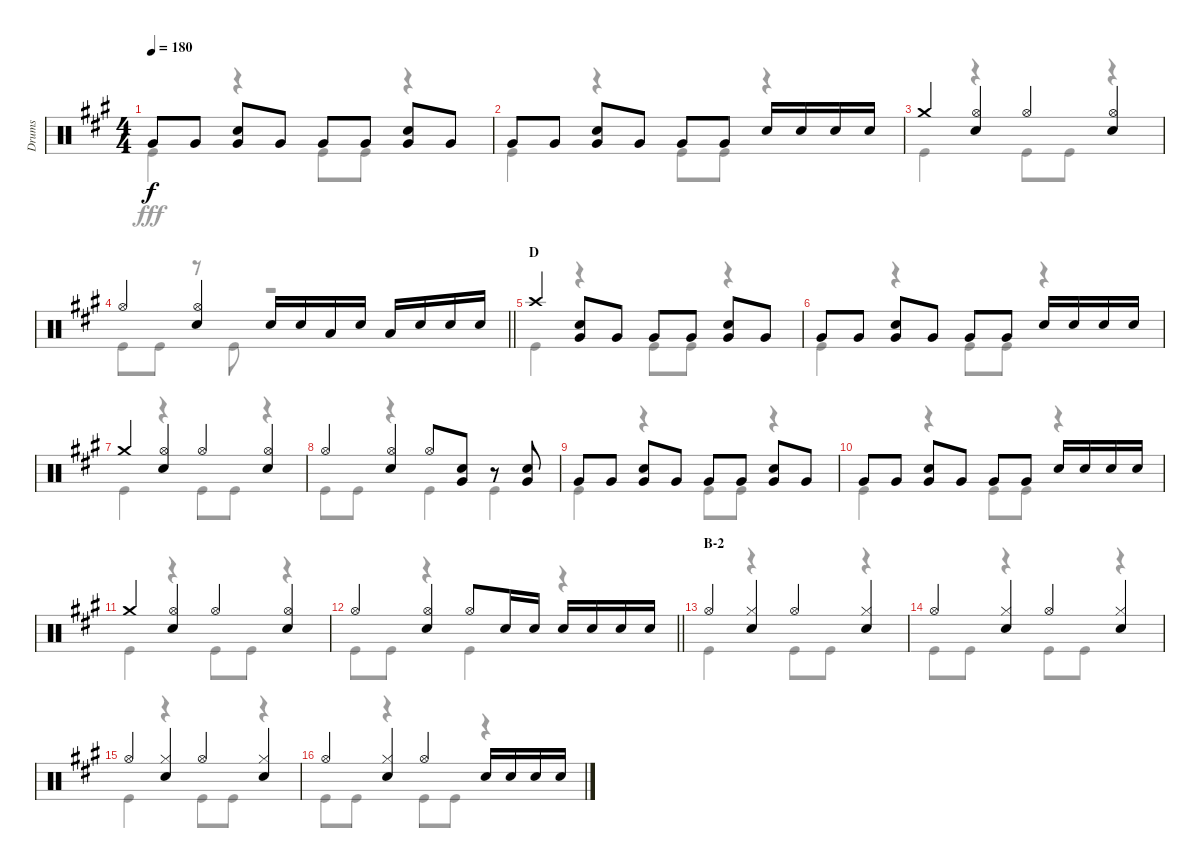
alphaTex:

\track ("Drums" "Drums") {instrument percussion}
\staff {score}
\articulation defaults
\voice
\ts (4 4)
\tempo 180
\clef neutral
\ks a "Very Low Tom (hit)".8{dy f} "Very Low Tom (hit)".8
("Snare (hit) 2" "Very Low Tom (hit)").8 "Very Low Tom (hit)".8 "Very Low Tom (hit)".8 "Very Low Tom (hit)".8 ("Snare (hit) 2" "Very Low Tom (hit)").8 "Very Low Tom (hit)".8 |
"Very Low Tom (hit)".8 "Very Low Tom (hit)".8 ("Snare (hit) 2" "Very Low Tom (hit)").8 "Very Low Tom (hit)".8 "Very Low Tom (hit)".8 "Very Low Tom (hit)".8 "Snare (hit) 2".16 "Snare (hit) 2".16 "Snare (hit) 2".16 "Snare (hit) 2".16 |
"Crash medium (hit)".4 ("Hi-Hat (open)" "Snare (hit) 2").4 "Hi-Hat (open)".4 ("Hi-Hat (open)" "Snare (hit) 2").4 |
\barLineRight lightlight "Hi-Hat (open)".4
("Hi-Hat (open)" "Snare (hit) 2").4 "Snare (hit) 2".16 "Snare (hit) 2".16 "Low Tom (hit)".16 "Snare (hit) 2".16 "Low Tom (hit)".16 "Snare (hit) 2".16 "Snare (hit) 2".16 "Snare (hit) 2".16 |
\section ("" "D")
"Crash high (hit)".4 ("Snare (hit) 2" "Very Low Tom (hit)").8 "Very Low Tom (hit)".8 "Very Low Tom (hit)".8 "Very Low Tom (hit)".8 ("Snare (hit) 2" "Very Low Tom (hit)").8 "Very Low Tom (hit)".8 |
"Very Low Tom (hit)".8 "Very Low Tom (hit)".8 ("Snare (hit) 2" "Very Low Tom (hit)").8 "Very Low Tom (hit)".8 "Very Low Tom (hit)".8 "Very Low Tom (hit)".8 "Snare (hit) 2".16 "Snare (hit) 2".16 "Snare (hit) 2".16 "Snare (hit) 2".16 |
"Crash medium (hit)".4 ("Hi-Hat (open)" "Snare (hit) 2").4 "Hi-Hat (open)".4 ("Hi-Hat (open)" "Snare (hit) 2").4 |
"Hi-Hat (open)".4 ("Hi-Hat (open)" "Snare (hit) 2").4 "Hi-Hat (open)".8 ("Snare (hit) 2" "Very Low Tom (hit)").8 r.8 ("Snare (hit) 2" "Very Low Tom (hit)").8 |
"Very Low Tom (hit)".8 "Very Low Tom (hit)".8 ("Snare (hit) 2" "Very Low Tom (hit)").8 "Very Low Tom (hit)".8 "Very Low Tom (hit)".8 "Very Low Tom (hit)".8 ("Snare (hit) 2" "Very Low Tom (hit)").8 "Very Low Tom (hit)".8 |
"Very Low Tom (hit)".8 "Very Low Tom (hit)".8 ("Snare (hit) 2" "Very Low Tom (hit)").8 "Very Low Tom (hit)".8 "Very Low Tom (hit)".8 "Very Low Tom (hit)".8 "Snare (hit) 2".16 "Snare (hit) 2".16 "Snare (hit) 2".16 "Snare (hit) 2".16 |
"Crash medium (hit)".4 ("Hi-Hat (open)" "Snare (hit) 2").4 "Hi-Hat (open)".4 ("Hi-Hat (open)" "Snare (hit) 2").4 |
\barLineRight lightlight "Hi-Hat (open)".4
("Hi-Hat (open)" "Snare (hit) 2").4 "Hi-Hat (open)".8 "Snare (hit) 2".16 "Snare (hit) 2".16 "Snare (hit) 2".16 "Snare (hit) 2".16 "Snare (hit) 2".16 "Snare (hit) 2".16 |
\section ("" "B-2")
"Hi-Hat (open)".4 ("Hi-Hat (closed)" "Snare (hit) 2").4 "Hi-Hat (open)".4 ("Hi-Hat (closed)" "Snare (hit) 2").4 |
"Hi-Hat (open)".4 ("Hi-Hat (closed)" "Snare (hit) 2").4 "Hi-Hat (open)".4 ("Hi-Hat (closed)" "Snare (hit) 2").4 |
"Hi-Hat (open)".4 ("Hi-Hat (closed)" "Snare (hit) 2").4 "Hi-Hat (open)".4 ("Hi-Hat (closed)" "Snare (hit) 2").4 |
"Hi-Hat (open)".4 ("Hi-Hat (closed)" "Snare (hit) 2").4 "Hi-Hat (open)".4 "Snare (hit) 2".16 "Snare (hit) 2".16 "Snare (hit) 2".16 "Snare (hit) 2".16
\voice
\clef neutral
\ottava regular
\simile none
\ks a "Kick (hit)".4{dy fff}
r.4 "Kick (hit)".8 "Kick (hit)".8 r.4 |
"Kick (hit)".4 r.4 "Kick (hit)".8 "Kick (hit)".8 r.4 |
"Kick (hit)".4 r.4 "Kick (hit)".8 "Kick (hit)".8 r.4 |
\barLineRight lightlight "Kick (hit)".8 "Kick (hit)".8
r.8 "Kick (hit)".8 r.2 |
"Kick (hit)".4 r.4 "Kick (hit)".8 "Kick (hit)".8 r.4 |
"Kick (hit)".4 r.4 "Kick (hit)".8 "Kick (hit)".8 r.4 |
"Kick (hit)".4 r.4 "Kick (hit)".8 "Kick (hit)".8 r.4 |
"Kick (hit)".8 "Kick (hit)".8 r.4 "Kick (hit)".4 "Kick (hit)".4 |
"Kick (hit)".4 r.4 "Kick (hit)".8 "Kick (hit)".8 r.4 |
"Kick (hit)".4 r.4 "Kick (hit)".8 "Kick (hit)".8 r.4 |
"Kick (hit)".4 r.4 "Kick (hit)".8 "Kick (hit)".8 r.4 |
\barLineRight lightlight "Kick (hit)".8 "Kick (hit)".8
r.4 "Kick (hit)".4 r.4 |
"Kick (hit)".4 r.4 "Kick (hit)".8 "Kick (hit)".8 r.4 |
"Kick (hit)".8 "Kick (hit)".8 r.4 "Kick (hit)".8 "Kick (hit)".8 r.4 |
"Kick (hit)".4 r.4 "Kick (hit)".8 "Kick (hit)".8 r.4 |
"Kick (hit)".8 "Kick (hit)".8 r.4 "Kick (hit)".8 "Kick (hit)".8 r.4
